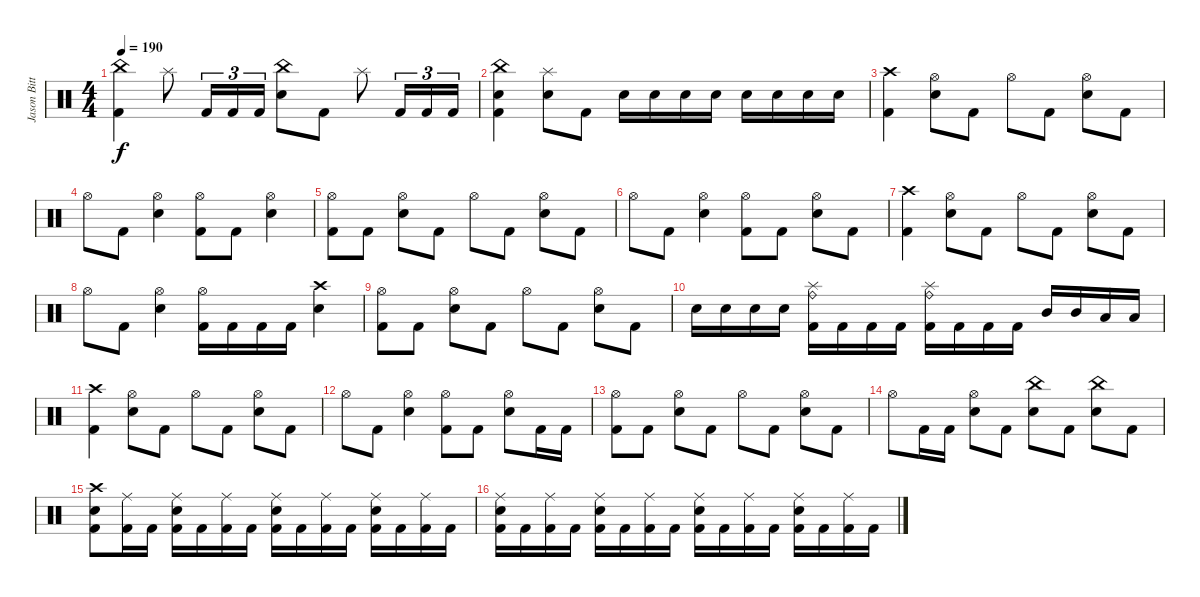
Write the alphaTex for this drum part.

\track ("Jason Bittner" "Jason Bitt") {instrument percussion}
\staff {score}
\articulation defaults
\ts (4 4)
\tempo 190
\clef neutral
\ks c
("China (hit)" "Kick (hit) 2").4{dy f} "Splash (hit)".8 "Kick (hit) 2".16{tu (3 2)} "Kick (hit) 2".16{tu (3 2)} "Kick (hit) 2".16{tu (3 2)} ("China (hit)" "Electric Snare (hit)").8 "Kick (hit) 2".8 "Splash (hit)".8 "Kick (hit) 2".16{tu (3 2)} "Kick (hit) 2".16{tu (3 2)} "Kick (hit) 2".16{tu (3 2)} |
("China (hit)" "Electric Snare (hit)" "Kick (hit) 2").4 ("Splash (hit)" "Electric Snare (hit)").8 "Kick (hit) 2".8 "Electric Snare (hit)".16 "Electric Snare (hit)".16 "Electric Snare (hit)".16 "Electric Snare (hit)".16 "Electric Snare (hit)".16 "Electric Snare (hit)".16 "Electric Snare (hit)".16 "Electric Snare (hit)".16 |
("Crash high (hit)" "Kick (hit) 2").4 ("Hi-Hat (open)" "Electric Snare (hit)").8 "Kick (hit) 2".8 "Hi-Hat (open)".8 "Kick (hit) 2".8 ("Hi-Hat (open)" "Electric Snare (hit)").8 "Kick (hit) 2".8 |
"Hi-Hat (open)".8 "Kick (hit) 2".8 ("Hi-Hat (open)" "Electric Snare (hit)").4 ("Hi-Hat (open)" "Kick (hit) 2").8 "Kick (hit) 2".8 ("Hi-Hat (open)" "Electric Snare (hit)").4 |
("Hi-Hat (open)" "Kick (hit) 2").8 "Kick (hit) 2".8 ("Hi-Hat (open)" "Electric Snare (hit)").8 "Kick (hit) 2".8 "Hi-Hat (open)".8 "Kick (hit) 2".8 ("Hi-Hat (open)" "Electric Snare (hit)").8 "Kick (hit) 2".8 |
"Hi-Hat (open)".8 "Kick (hit) 2".8 ("Hi-Hat (open)" "Electric Snare (hit)").4 ("Hi-Hat (open)" "Kick (hit) 2").8 "Kick (hit) 2".8 ("Hi-Hat (open)" "Electric Snare (hit)").8 "Kick (hit) 2".8 |
("Crash high (hit)" "Kick (hit) 2").4 ("Hi-Hat (open)" "Electric Snare (hit)").8 "Kick (hit) 2".8 "Hi-Hat (open)".8 "Kick (hit) 2".8 ("Hi-Hat (open)" "Electric Snare (hit)").8 "Kick (hit) 2".8 |
"Hi-Hat (open)".8 "Kick (hit) 2".8 ("Hi-Hat (open)" "Electric Snare (hit)").4 ("Hi-Hat (open)" "Kick (hit) 2").16 "Kick (hit) 2".16 "Kick (hit) 2".16 "Kick (hit) 2".16 ("Crash high (hit)" "Electric Snare (hit)").4 |
("Hi-Hat (open)" "Kick (hit) 2").8 "Kick (hit) 2".8 ("Hi-Hat (open)" "Electric Snare (hit)").8 "Kick (hit) 2".8 "Hi-Hat (open)".8 "Kick (hit) 2".8 ("Hi-Hat (open)" "Electric Snare (hit)").8 "Kick (hit) 2".8 |
"Electric Snare (hit)".16 "Electric Snare (hit)".16 "Electric Snare (hit)".16 "Electric Snare (hit)".16 ("Ride (bell)" "Splash (hit)" "Kick (hit) 2").16 "Kick (hit) 2".16 "Kick (hit) 2".16 "Kick (hit) 2".16 ("Ride (bell)" "Splash (hit)" "Kick (hit) 2").16 "Kick (hit) 2".16 "Kick (hit) 2".16 "Kick (hit) 2".16 "Mid Tom (hit)".16 "Mid Tom (hit)".16 "Low Tom (hit)".16 "Low Tom (hit)".16 |
("Crash high (hit)" "Kick (hit) 2").4 ("Hi-Hat (open)" "Electric Snare (hit)").8 "Kick (hit) 2".8 "Hi-Hat (open)".8 "Kick (hit) 2".8 ("Hi-Hat (open)" "Electric Snare (hit)").8 "Kick (hit) 2".8 |
"Hi-Hat (open)".8 "Kick (hit) 2".8 ("Hi-Hat (open)" "Electric Snare (hit)").4 ("Hi-Hat (open)" "Kick (hit) 2").8 "Kick (hit) 2".8 ("Hi-Hat (open)" "Electric Snare (hit)").8 "Kick (hit) 2".16 "Kick (hit) 2".16 |
("Hi-Hat (open)" "Kick (hit) 2").8 "Kick (hit) 2".8 ("Hi-Hat (open)" "Electric Snare (hit)").8 "Kick (hit) 2".8 "Hi-Hat (open)".8 "Kick (hit) 2".8 ("Hi-Hat (open)" "Electric Snare (hit)").8 "Kick (hit) 2".8 |
"Hi-Hat (open)".8 "Kick (hit) 2".16 "Kick (hit) 2".16 ("Hi-Hat (open)" "Electric Snare (hit)").8 "Kick (hit) 2".8 ("China (hit)" "Electric Snare (hit)").8 "Kick (hit) 2".8 ("China (hit)" "Electric Snare (hit)").8 "Kick (hit) 2".8 |
("Crash high (hit)" "Electric Snare (hit)" "Kick (hit) 2").8 ("Ride (middle)" "Kick (hit) 2").16 "Kick (hit) 2".16 ("Ride (middle)" "Electric Snare (hit)" "Kick (hit) 2").16 "Kick (hit) 2".16 ("Ride (middle)" "Kick (hit) 2").16 "Kick (hit) 2".16 ("Ride (middle)" "Electric Snare (hit)" "Kick (hit) 2").16 "Kick (hit) 2".16 ("Ride (middle)" "Kick (hit) 2").16 "Kick (hit) 2".16 ("Ride (middle)" "Electric Snare (hit)" "Kick (hit) 2").16 "Kick (hit) 2".16 ("Ride (middle)" "Kick (hit) 2").16 "Kick (hit) 2".16 |
("Ride (middle)" "Electric Snare (hit)" "Kick (hit) 2").16 "Kick (hit) 2".16 ("Ride (middle)" "Kick (hit) 2").16 "Kick (hit) 2".16 ("Ride (middle)" "Electric Snare (hit)" "Kick (hit) 2").16 "Kick (hit) 2".16 ("Ride (middle)" "Kick (hit) 2").16 "Kick (hit) 2".16 ("Ride (middle)" "Electric Snare (hit)" "Kick (hit) 2").16 "Kick (hit) 2".16 ("Ride (middle)" "Kick (hit) 2").16 "Kick (hit) 2".16 ("Ride (middle)" "Electric Snare (hit)" "Kick (hit) 2").16 "Kick (hit) 2".16 ("Ride (middle)" "Kick (hit) 2").16 "Kick (hit) 2".16
